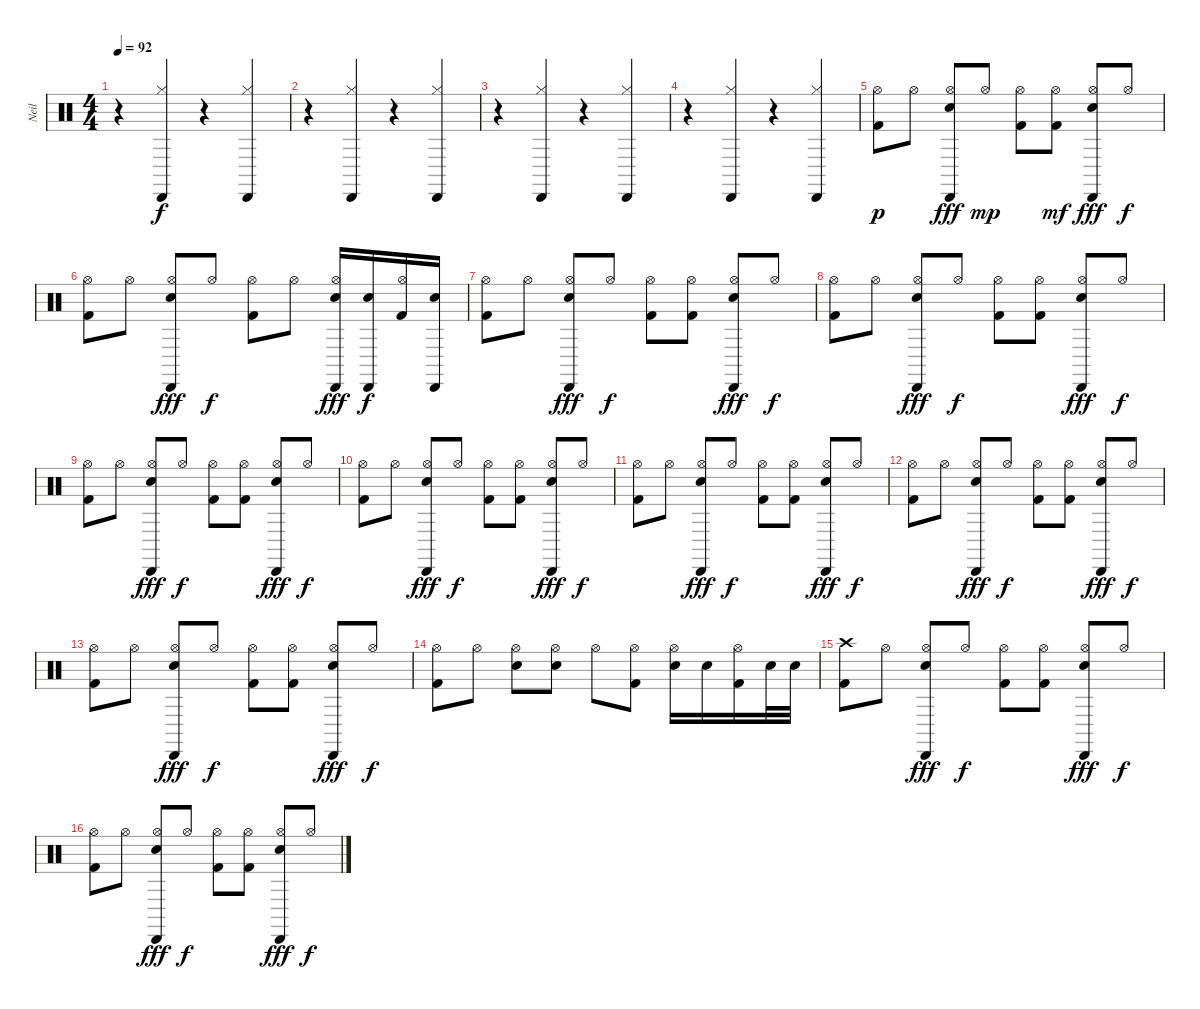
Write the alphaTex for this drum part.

\track ("Neil" "Neil") {instrument percussion}
\staff {score}
\articulation defaults
\ts (4 4)
\tempo 92
\clef neutral
\ks c
r.4{dy f} ("Hi-Hat (closed)" "Cabasa (hit)").4 r.4 ("Hi-Hat (closed)" "Cabasa (hit)").4 |
r.4 ("Hi-Hat (closed)" "Cabasa (hit)").4 r.4 ("Hi-Hat (closed)" "Cabasa (hit)").4 |
r.4 ("Hi-Hat (closed)" "Cabasa (hit)").4 r.4 ("Hi-Hat (closed)" "Cabasa (hit)").4 |
r.4 ("Hi-Hat (closed)" "Cabasa (hit)").4 r.4 ("Hi-Hat (closed)" "Cabasa (hit)").4 |
("Hi-Hat (open)" "Kick (hit) 2").8{dy p} "Hi-Hat (open)".8 ("Hi-Hat (open)" "Cabasa (hit)" "Electric Snare (hit)").8{dy fff} "Hi-Hat (open)".8{dy mp} ("Hi-Hat (open)" "Kick (hit) 2").8 ("Hi-Hat (open)" "Kick (hit) 2").8{dy mf} ("Hi-Hat (open)" "Cabasa (hit)" "Electric Snare (hit)").8{dy fff} "Hi-Hat (open)".8{dy f} |
("Hi-Hat (open)" "Kick (hit) 2").8 "Hi-Hat (open)".8 ("Hi-Hat (open)" "Cabasa (hit)" "Electric Snare (hit)").8{dy fff} "Hi-Hat (open)".8{dy f} ("Hi-Hat (open)" "Kick (hit) 2").8 "Hi-Hat (open)".8 ("Hi-Hat (open)" "Cabasa (hit)" "Electric Snare (hit)").16{dy fff} ("Cabasa (hit)" "Electric Snare (hit)").16{dy f} ("Hi-Hat (open)" "Kick (hit) 2").16 ("Cabasa (hit)" "Electric Snare (hit)").16 |
("Hi-Hat (open)" "Kick (hit) 2").8 "Hi-Hat (open)".8 ("Hi-Hat (open)" "Cabasa (hit)" "Electric Snare (hit)").8{dy fff} "Hi-Hat (open)".8{dy f} ("Hi-Hat (open)" "Kick (hit) 2").8 ("Hi-Hat (open)" "Kick (hit) 2").8 ("Hi-Hat (open)" "Cabasa (hit)" "Electric Snare (hit)").8{dy fff} "Hi-Hat (open)".8{dy f} |
("Hi-Hat (open)" "Kick (hit) 2").8 "Hi-Hat (open)".8 ("Hi-Hat (open)" "Cabasa (hit)" "Electric Snare (hit)").8{dy fff} "Hi-Hat (open)".8{dy f} ("Hi-Hat (open)" "Kick (hit) 2").8 ("Hi-Hat (open)" "Kick (hit) 2").8 ("Hi-Hat (open)" "Cabasa (hit)" "Electric Snare (hit)").8{dy fff} "Hi-Hat (open)".8{dy f} |
("Hi-Hat (open)" "Kick (hit) 2").8 "Hi-Hat (open)".8 ("Hi-Hat (open)" "Cabasa (hit)" "Electric Snare (hit)").8{dy fff} "Hi-Hat (open)".8{dy f} ("Hi-Hat (open)" "Kick (hit) 2").8 ("Hi-Hat (open)" "Kick (hit) 2").8 ("Hi-Hat (open)" "Cabasa (hit)" "Electric Snare (hit)").8{dy fff} "Hi-Hat (open)".8{dy f} |
("Hi-Hat (open)" "Kick (hit) 2").8 "Hi-Hat (open)".8 ("Hi-Hat (open)" "Cabasa (hit)" "Electric Snare (hit)").8{dy fff} "Hi-Hat (open)".8{dy f} ("Hi-Hat (open)" "Kick (hit) 2").8 ("Hi-Hat (open)" "Kick (hit) 2").8 ("Hi-Hat (open)" "Cabasa (hit)" "Electric Snare (hit)").8{dy fff} "Hi-Hat (open)".8{dy f} |
("Hi-Hat (open)" "Kick (hit) 2").8 "Hi-Hat (open)".8 ("Hi-Hat (open)" "Cabasa (hit)" "Electric Snare (hit)").8{dy fff} "Hi-Hat (open)".8{dy f} ("Hi-Hat (open)" "Kick (hit) 2").8 ("Hi-Hat (open)" "Kick (hit) 2").8 ("Hi-Hat (open)" "Cabasa (hit)" "Electric Snare (hit)").8{dy fff} "Hi-Hat (open)".8{dy f} |
("Hi-Hat (open)" "Kick (hit) 2").8 "Hi-Hat (open)".8 ("Hi-Hat (open)" "Cabasa (hit)" "Electric Snare (hit)").8{dy fff} "Hi-Hat (open)".8{dy f} ("Hi-Hat (open)" "Kick (hit) 2").8 ("Hi-Hat (open)" "Kick (hit) 2").8 ("Hi-Hat (open)" "Cabasa (hit)" "Electric Snare (hit)").8{dy fff} "Hi-Hat (open)".8{dy f} |
("Hi-Hat (open)" "Kick (hit) 2").8 "Hi-Hat (open)".8 ("Hi-Hat (open)" "Cabasa (hit)" "Electric Snare (hit)").8{dy fff} "Hi-Hat (open)".8{dy f} ("Hi-Hat (open)" "Kick (hit) 2").8 ("Hi-Hat (open)" "Kick (hit) 2").8 ("Hi-Hat (open)" "Cabasa (hit)" "Electric Snare (hit)").8{dy fff} "Hi-Hat (open)".8{dy f} |
("Hi-Hat (open)" "Kick (hit) 2").8 "Hi-Hat (open)".8 ("Hi-Hat (open)" "Electric Snare (hit)").8 ("Hi-Hat (open)" "Electric Snare (hit)").8 "Hi-Hat (open)".8 ("Hi-Hat (open)" "Kick (hit) 2").8 ("Hi-Hat (open)" "Electric Snare (hit)").16 "Electric Snare (hit)".16 ("Hi-Hat (open)" "Kick (hit) 2").16 "Electric Snare (hit)".32 "Electric Snare (hit)".32 |
("Crash high (hit)" "Kick (hit) 2").8 "Hi-Hat (open)".8 ("Hi-Hat (open)" "Cabasa (hit)" "Electric Snare (hit)").8{dy fff} "Hi-Hat (open)".8{dy f} ("Hi-Hat (open)" "Kick (hit) 2").8 ("Hi-Hat (open)" "Kick (hit) 2").8 ("Hi-Hat (open)" "Cabasa (hit)" "Electric Snare (hit)").8{dy fff} "Hi-Hat (open)".8{dy f} |
("Hi-Hat (open)" "Kick (hit) 2").8 "Hi-Hat (open)".8 ("Hi-Hat (open)" "Cabasa (hit)" "Electric Snare (hit)").8{dy fff} "Hi-Hat (open)".8{dy f} ("Hi-Hat (open)" "Kick (hit) 2").8 ("Hi-Hat (open)" "Kick (hit) 2").8 ("Hi-Hat (open)" "Cabasa (hit)" "Electric Snare (hit)").8{dy fff} "Hi-Hat (open)".8{dy f}
